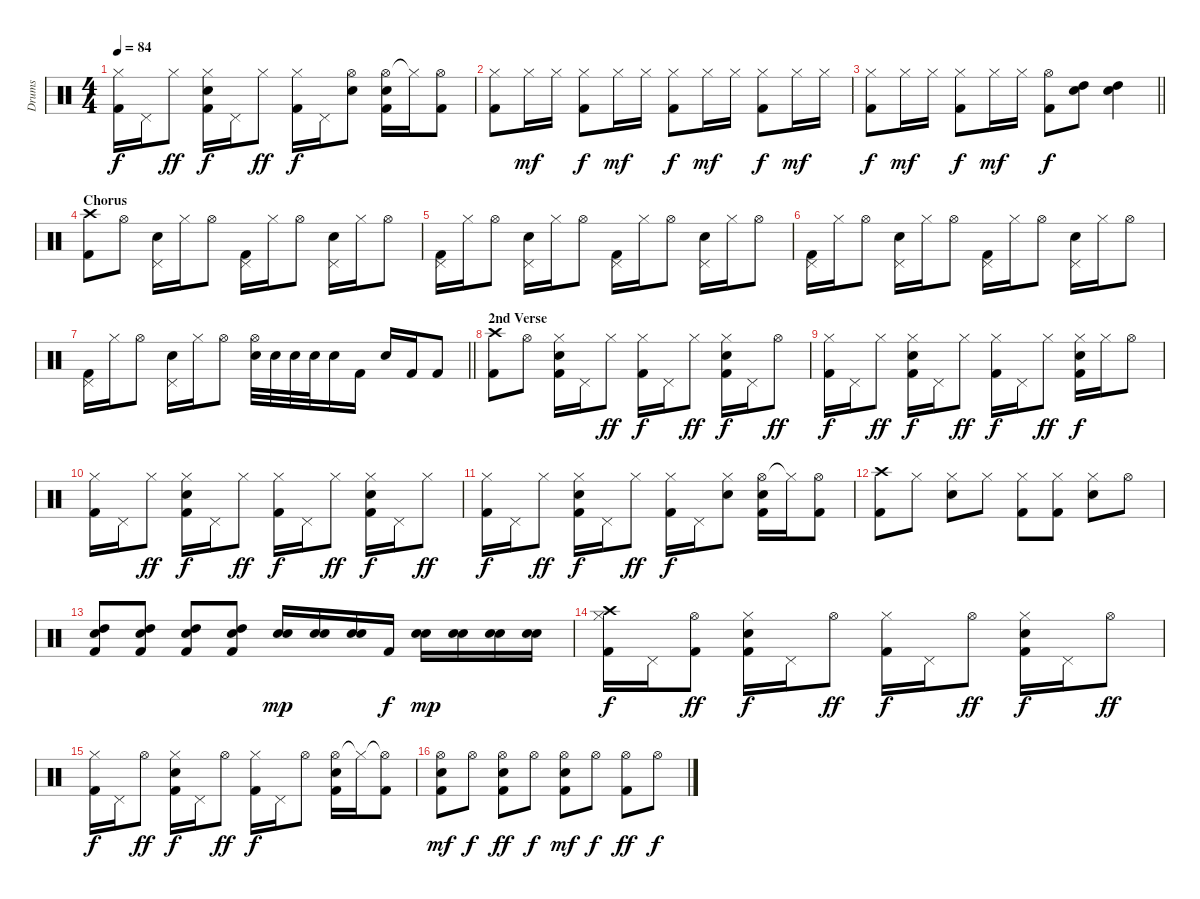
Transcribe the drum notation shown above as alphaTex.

\track ("Drums" "Drums") {instrument percussion}
\staff {score}
\articulation defaults
\ts (4 4)
\tempo 84
\clef neutral
\ks c
("Hi-Hat (closed)" "Kick (hit) 2").16{dy f} "Pedal Hi-Hat (hit)".16 "Hi-Hat (closed)".8{dy ff} ("Hi-Hat (closed)" "Electric Snare (hit)" "Kick (hit) 2").16{dy f} "Pedal Hi-Hat (hit)".16 "Hi-Hat (closed)".8{dy ff} ("Hi-Hat (closed)" "Kick (hit) 2").16{dy f} "Pedal Hi-Hat (hit)".16 ("Hi-Hat (open)" "Electric Snare (hit)").8 ("Hi-Hat (open)" "Electric Snare (hit)" "Kick (hit) 2").16 "Hi-Hat (closed)"{t}.16 ("Hi-Hat (open)" "Kick (hit) 2").8 |
("Hi-Hat (closed)" "Kick (hit) 2").8 "Hi-Hat (closed)".16{dy mf} "Hi-Hat (closed)".16 ("Hi-Hat (closed)" "Kick (hit) 2").8{dy f} "Hi-Hat (closed)".16{dy mf} "Hi-Hat (closed)".16 ("Hi-Hat (closed)" "Kick (hit) 2").8{dy f} "Hi-Hat (closed)".16{dy mf} "Hi-Hat (closed)".16 ("Hi-Hat (closed)" "Kick (hit) 2").8{dy f} "Hi-Hat (closed)".16{dy mf} "Hi-Hat (closed)".16 |
\barLineRight lightlight
("Hi-Hat (closed)" "Kick (hit) 2").8{dy f} "Hi-Hat (closed)".16{dy mf} "Hi-Hat (closed)".16 ("Hi-Hat (closed)" "Kick (hit) 2").8{dy f} "Hi-Hat (closed)".16{dy mf} "Hi-Hat (closed)".16 ("Hi-Hat (open)" "Kick (hit) 2").8{dy f} ("Electric Snare (hit)" "High Tom (hit)").8 ("Electric Snare (hit)" "High Tom (hit)").4 |
\section ("" "Chorus")
("Crash high (hit)" "Kick (hit) 2").8 "Hi-Hat (open)".8 ("Pedal Hi-Hat (hit)" "Electric Snare (hit)").16 "Hi-Hat (closed)".16 "Hi-Hat (open)".8 ("Pedal Hi-Hat (hit)" "Kick (hit) 2").16 "Hi-Hat (closed)".16 "Hi-Hat (open)".8 ("Pedal Hi-Hat (hit)" "Electric Snare (hit)").16 "Hi-Hat (closed)".16 "Hi-Hat (open)".8 |
("Pedal Hi-Hat (hit)" "Kick (hit) 2").16 "Hi-Hat (closed)".16 "Hi-Hat (open)".8 ("Pedal Hi-Hat (hit)" "Electric Snare (hit)").16 "Hi-Hat (closed)".16 "Hi-Hat (open)".8 ("Pedal Hi-Hat (hit)" "Kick (hit) 2").16 "Hi-Hat (closed)".16 "Hi-Hat (open)".8 ("Pedal Hi-Hat (hit)" "Electric Snare (hit)").16 "Hi-Hat (closed)".16 "Hi-Hat (open)".8 |
("Pedal Hi-Hat (hit)" "Kick (hit) 2").16 "Hi-Hat (closed)".16 "Hi-Hat (open)".8 ("Pedal Hi-Hat (hit)" "Electric Snare (hit)").16 "Hi-Hat (closed)".16 "Hi-Hat (open)".8 ("Pedal Hi-Hat (hit)" "Kick (hit) 2").16 "Hi-Hat (closed)".16 "Hi-Hat (open)".8 ("Pedal Hi-Hat (hit)" "Electric Snare (hit)").16 "Hi-Hat (closed)".16 "Hi-Hat (open)".8 |
\barLineRight lightlight
("Pedal Hi-Hat (hit)" "Kick (hit) 2").16 "Hi-Hat (closed)".16 "Hi-Hat (open)".8 ("Pedal Hi-Hat (hit)" "Electric Snare (hit)").16 "Hi-Hat (closed)".16 "Hi-Hat (open)".8 ("Hi-Hat (open)" "Electric Snare (hit)").32 "Electric Snare (hit)".32 "Electric Snare (hit)".32 "Electric Snare (hit)".32 "Electric Snare (hit)".16 "Kick (hit) 2".16 "Electric Snare (hit)".16 "Kick (hit) 2".16 "Kick (hit) 2".8 |
\section ("" "2nd Verse")
("Crash high (hit)" "Kick (hit) 2").8 "Hi-Hat (open)".8 ("Hi-Hat (closed)" "Electric Snare (hit)" "Kick (hit) 2").16 "Pedal Hi-Hat (hit)".16 "Hi-Hat (closed)".8{dy ff} ("Hi-Hat (closed)" "Kick (hit) 2").16{dy f} "Pedal Hi-Hat (hit)".16 "Hi-Hat (closed)".8{dy ff} ("Hi-Hat (closed)" "Electric Snare (hit)" "Kick (hit) 2").16{dy f} "Pedal Hi-Hat (hit)".16 "Hi-Hat (open)".8{dy ff} |
("Hi-Hat (closed)" "Kick (hit) 2").16{dy f} "Pedal Hi-Hat (hit)".16 "Hi-Hat (closed)".8{dy ff} ("Hi-Hat (closed)" "Electric Snare (hit)" "Kick (hit) 2").16{dy f} "Pedal Hi-Hat (hit)".16 "Hi-Hat (closed)".8{dy ff} ("Hi-Hat (closed)" "Kick (hit) 2").16{dy f} "Pedal Hi-Hat (hit)".16 "Hi-Hat (closed)".8{dy ff} ("Hi-Hat (closed)" "Electric Snare (hit)" "Kick (hit) 2").16{dy f} "Hi-Hat (closed)".16 "Hi-Hat (open)".8 |
("Hi-Hat (closed)" "Kick (hit) 2").16 "Pedal Hi-Hat (hit)".16 "Hi-Hat (closed)".8{dy ff} ("Hi-Hat (closed)" "Electric Snare (hit)" "Kick (hit) 2").16{dy f} "Pedal Hi-Hat (hit)".16 "Hi-Hat (closed)".8{dy ff} ("Hi-Hat (closed)" "Kick (hit) 2").16{dy f} "Pedal Hi-Hat (hit)".16 "Hi-Hat (closed)".8{dy ff} ("Hi-Hat (closed)" "Electric Snare (hit)" "Kick (hit) 2").16{dy f} "Pedal Hi-Hat (hit)".16 "Hi-Hat (closed)".8{dy ff} |
("Hi-Hat (closed)" "Kick (hit) 2").16{dy f} "Pedal Hi-Hat (hit)".16 "Hi-Hat (closed)".8{dy ff} ("Hi-Hat (closed)" "Electric Snare (hit)" "Kick (hit) 2").16{dy f} "Pedal Hi-Hat (hit)".16 "Hi-Hat (closed)".8{dy ff} ("Hi-Hat (closed)" "Kick (hit) 2").16{dy f} "Pedal Hi-Hat (hit)".16 ("Hi-Hat (closed)" "Electric Snare (hit)").8 ("Hi-Hat (open)" "Electric Snare (hit)" "Kick (hit) 2").16 "Hi-Hat (closed)"{t}.16 ("Hi-Hat (open)" "Kick (hit) 2").8 |
("Crash high (hit)" "Kick (hit) 2").8{volume 10 balance 11} "Hi-Hat (closed)".8 ("Hi-Hat (closed)" "Snare (hit) 2").8 "Hi-Hat (closed)".8 ("Hi-Hat (closed)" "Kick (hit) 2").8 ("Hi-Hat (closed)" "Kick (hit) 2").8 ("Hi-Hat (closed)" "Snare (hit) 2").8 "Hi-Hat (open)".8 |
("Electric Snare (hit)" "High Tom (hit)" "Kick (hit) 2").8{volume 13} ("Electric Snare (hit)" "High Tom (hit)" "Kick (hit) 2").8 ("Electric Snare (hit)" "High Tom (hit)" "Kick (hit) 2").8 ("Electric Snare (hit)" "High Tom (hit)" "Kick (hit) 2").8 ("Electric Snare (hit)" "Snare (hit) 2").16{dy mp} ("Electric Snare (hit)" "Snare (hit) 2").16 ("Electric Snare (hit)" "Snare (hit) 2").16 "Kick (hit) 2".16{dy f} ("Electric Snare (hit)" "Snare (hit) 2").16{dy mp} ("Electric Snare (hit)" "Snare (hit) 2").16 ("Electric Snare (hit)" "Snare (hit) 2").16 ("Electric Snare (hit)" "Snare (hit) 2").16 |
("Crash high (hit)" "Hi-Hat (closed)" "Kick (hit) 2").16{dy f volume 13 balance 8} "Pedal Hi-Hat (hit)".16 ("Hi-Hat (open)" "Kick (hit) 2").8{dy ff} ("Hi-Hat (closed)" "Electric Snare (hit)" "Kick (hit) 2").16{dy f} "Pedal Hi-Hat (hit)".16 "Hi-Hat (open)".8{dy ff} ("Hi-Hat (closed)" "Kick (hit) 2").16{dy f} "Pedal Hi-Hat (hit)".16 "Hi-Hat (open)".8{dy ff} ("Hi-Hat (closed)" "Electric Snare (hit)" "Kick (hit) 2").16{dy f} "Pedal Hi-Hat (hit)".16 "Hi-Hat (open)".8{dy ff} |
("Hi-Hat (closed)" "Kick (hit) 2").16{dy f} "Pedal Hi-Hat (hit)".16 "Hi-Hat (open)".8{dy ff} ("Hi-Hat (closed)" "Electric Snare (hit)" "Kick (hit) 2").16{dy f} "Pedal Hi-Hat (hit)".16 "Hi-Hat (open)".8{dy ff} ("Hi-Hat (closed)" "Kick (hit) 2").16{dy f} "Pedal Hi-Hat (hit)".16 "Hi-Hat (open)".8 ("Hi-Hat (open)" "Electric Snare (hit)" "Kick (hit) 2").16 "Hi-Hat (closed)"{t}.16 ("Hi-Hat (open)"{t} "Kick (hit) 2").8 |
("Hi-Hat (open)" "Electric Snare (hit)" "Kick (hit) 2").8{dy mf} "Hi-Hat (open)".8{dy f} ("Hi-Hat (open)" "Electric Snare (hit)" "Kick (hit) 2").8{dy ff} "Hi-Hat (open)".8{dy f} ("Hi-Hat (open)" "Electric Snare (hit)" "Kick (hit) 2").8{dy mf} "Hi-Hat (open)".8{dy f} ("Hi-Hat (open)" "Kick (hit) 2").8{dy ff} "Hi-Hat (open)".8{dy f}
